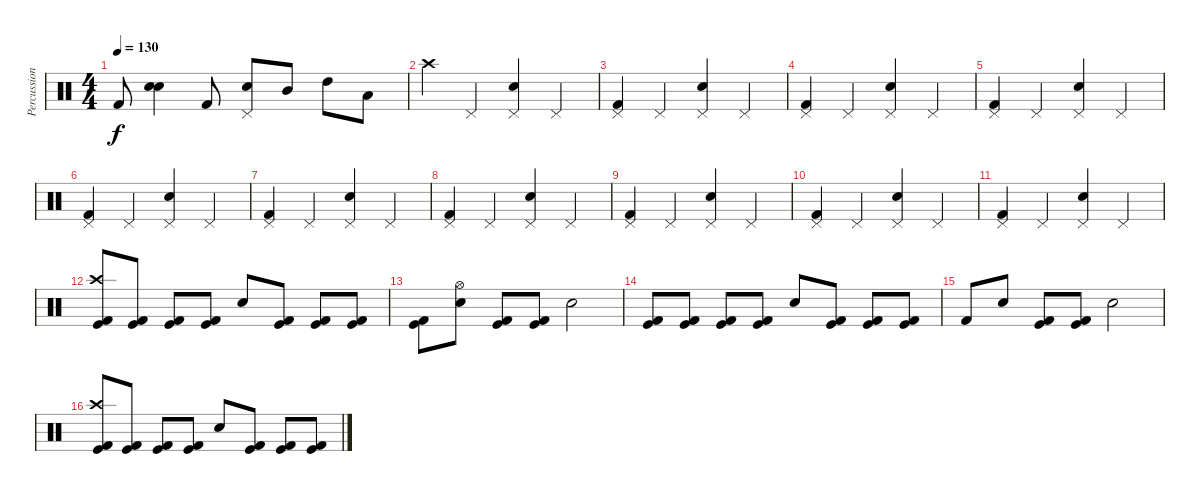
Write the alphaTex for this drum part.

\track ("Percussion 3" "Percussion") {instrument percussion}
\staff {score}
\articulation defaults
\ts (4 4)
\tempo 130
\clef neutral
\ks c "Kick (hit) 2".8{dy f}
("Electric Snare (hit)" "Snare (hit) 2").4 "Kick (hit) 2".8 ("Pedal Hi-Hat (hit)" "Snare (hit) 2").8 "Mid Tom (hit)".8 "High Tom (hit)".8 "Low Tom (hit)".8 |
"Crash high (hit)".4 "Pedal Hi-Hat (hit)".4 ("Pedal Hi-Hat (hit)" "Snare (hit) 2").4 "Pedal Hi-Hat (hit)".4 |
("Pedal Hi-Hat (hit)" "Kick (hit) 2").4 "Pedal Hi-Hat (hit)".4 ("Pedal Hi-Hat (hit)" "Snare (hit) 2").4 "Pedal Hi-Hat (hit)".4 |
("Pedal Hi-Hat (hit)" "Kick (hit) 2").4 "Pedal Hi-Hat (hit)".4 ("Pedal Hi-Hat (hit)" "Snare (hit) 2").4 "Pedal Hi-Hat (hit)".4 |
("Pedal Hi-Hat (hit)" "Kick (hit) 2").4 "Pedal Hi-Hat (hit)".4 ("Pedal Hi-Hat (hit)" "Snare (hit) 2").4 "Pedal Hi-Hat (hit)".4 |
("Pedal Hi-Hat (hit)" "Kick (hit) 2").4 "Pedal Hi-Hat (hit)".4 ("Pedal Hi-Hat (hit)" "Snare (hit) 2").4 "Pedal Hi-Hat (hit)".4 |
("Pedal Hi-Hat (hit)" "Kick (hit) 2").4 "Pedal Hi-Hat (hit)".4 ("Pedal Hi-Hat (hit)" "Snare (hit) 2").4 "Pedal Hi-Hat (hit)".4 |
("Pedal Hi-Hat (hit)" "Kick (hit) 2").4 "Pedal Hi-Hat (hit)".4 ("Pedal Hi-Hat (hit)" "Snare (hit) 2").4 "Pedal Hi-Hat (hit)".4 |
("Pedal Hi-Hat (hit)" "Kick (hit) 2").4 "Pedal Hi-Hat (hit)".4 ("Pedal Hi-Hat (hit)" "Snare (hit) 2").4 "Pedal Hi-Hat (hit)".4 |
("Pedal Hi-Hat (hit)" "Kick (hit) 2").4 "Pedal Hi-Hat (hit)".4 ("Pedal Hi-Hat (hit)" "Snare (hit) 2").4 "Pedal Hi-Hat (hit)".4 |
("Pedal Hi-Hat (hit)" "Kick (hit) 2").4 "Pedal Hi-Hat (hit)".4 ("Pedal Hi-Hat (hit)" "Snare (hit) 2").4 "Pedal Hi-Hat (hit)".4 |
("Crash high (hit)" "Kick (hit) 2" "Kick (hit)").8 ("Kick (hit) 2" "Kick (hit)").8 ("Kick (hit) 2" "Kick (hit)").8 ("Kick (hit) 2" "Kick (hit)").8 "Snare (hit) 2".8 ("Kick (hit) 2" "Kick (hit)").8 ("Kick (hit) 2" "Kick (hit)").8 ("Kick (hit) 2" "Kick (hit)").8 |
("Kick (hit) 2" "Kick (hit)").8 ("Snare (hit) 2" "Hi-Hat (open)").8 ("Kick (hit) 2" "Kick (hit)").8 ("Kick (hit) 2" "Kick (hit)").8 "Snare (hit) 2".2 |
("Kick (hit) 2" "Kick (hit)").8 ("Kick (hit) 2" "Kick (hit)").8 ("Kick (hit) 2" "Kick (hit)").8 ("Kick (hit) 2" "Kick (hit)").8 "Snare (hit) 2".8 ("Kick (hit) 2" "Kick (hit)").8 ("Kick (hit) 2" "Kick (hit)").8 ("Kick (hit) 2" "Kick (hit)").8 |
"Kick (hit) 2".8 "Snare (hit) 2".8 ("Kick (hit) 2" "Kick (hit)").8 ("Kick (hit) 2" "Kick (hit)").8 "Snare (hit) 2".2 |
("Crash high (hit)" "Kick (hit) 2" "Kick (hit)").8 ("Kick (hit) 2" "Kick (hit)").8 ("Kick (hit) 2" "Kick (hit)").8 ("Kick (hit) 2" "Kick (hit)").8 "Snare (hit) 2".8 ("Kick (hit) 2" "Kick (hit)").8 ("Kick (hit) 2" "Kick (hit)").8 ("Kick (hit) 2" "Kick (hit)").8
